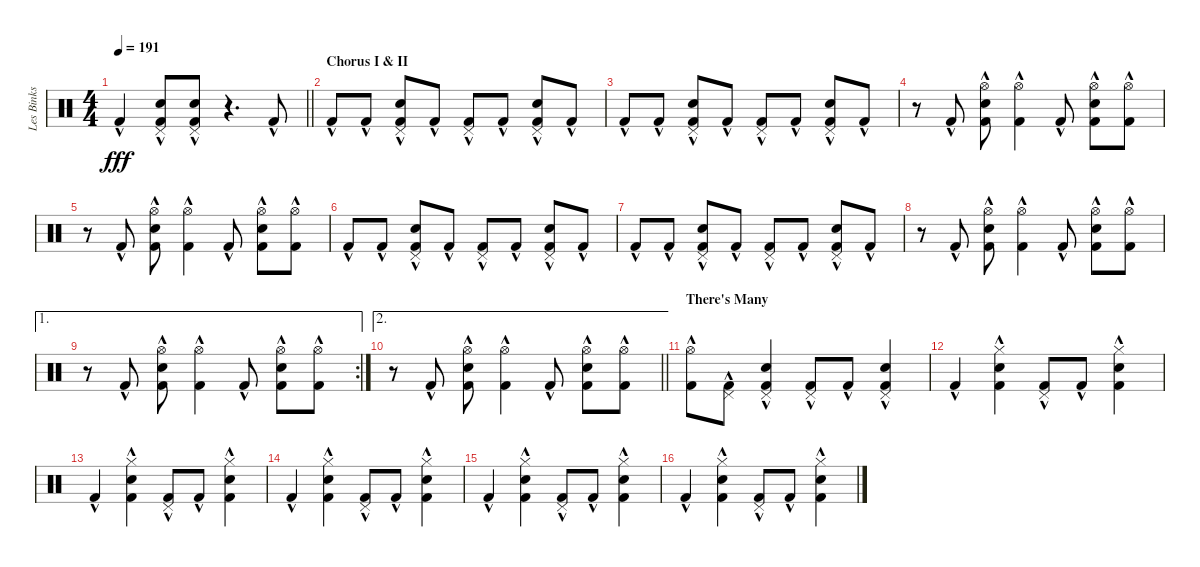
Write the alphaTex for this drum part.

\track ("Les Binks" "Les Binks") {instrument percussion}
\staff {score}
\articulation defaults
\ts (4 4)
\tempo 191
\clef neutral
\barLineRight lightlight
\ks c "Kick (hit) 2"{hac}.4{dy fff}
("Pedal Hi-Hat (hit)" "Snare (hit) 2" "Kick (hit) 2"{hac}).8 ("Pedal Hi-Hat (hit)" "Snare (hit) 2" "Kick (hit) 2"{hac}).8 r.4{d} "Kick (hit) 2"{hac}.8 |
\section ("" "Chorus I & II")
"Kick (hit) 2"{hac}.8 "Kick (hit) 2"{hac}.8 ("Pedal Hi-Hat (hit)" "Snare (hit) 2" "Kick (hit) 2"{hac}).8 "Kick (hit) 2"{hac}.8 ("Pedal Hi-Hat (hit)" "Kick (hit) 2"{hac}).8 "Kick (hit) 2"{hac}.8 ("Pedal Hi-Hat (hit)" "Snare (hit) 2" "Kick (hit) 2"{hac}).8 "Kick (hit) 2"{hac}.8 |
"Kick (hit) 2"{hac}.8 "Kick (hit) 2"{hac}.8 ("Pedal Hi-Hat (hit)" "Snare (hit) 2" "Kick (hit) 2"{hac}).8 "Kick (hit) 2"{hac}.8 ("Pedal Hi-Hat (hit)" "Kick (hit) 2"{hac}).8 "Kick (hit) 2"{hac}.8 ("Pedal Hi-Hat (hit)" "Snare (hit) 2" "Kick (hit) 2"{hac}).8 "Kick (hit) 2"{hac}.8 |
r.8 "Kick (hit) 2"{hac}.8 ("Hi-Hat (open)" "Snare (hit) 2" "Kick (hit) 2"{hac}).8 ("Hi-Hat (open)" "Kick (hit) 2"{hac}).4 "Kick (hit) 2"{hac}.8 ("Hi-Hat (open)" "Snare (hit) 2" "Kick (hit) 2"{hac}).8 ("Hi-Hat (open)" "Kick (hit) 2"{hac}).8 |
r.8 "Kick (hit) 2"{hac}.8 ("Hi-Hat (open)" "Snare (hit) 2" "Kick (hit) 2"{hac}).8 ("Hi-Hat (open)" "Kick (hit) 2"{hac}).4 "Kick (hit) 2"{hac}.8 ("Hi-Hat (open)" "Snare (hit) 2" "Kick (hit) 2"{hac}).8 ("Hi-Hat (open)" "Kick (hit) 2"{hac}).8 |
"Kick (hit) 2"{hac}.8 "Kick (hit) 2"{hac}.8 ("Pedal Hi-Hat (hit)" "Snare (hit) 2" "Kick (hit) 2"{hac}).8 "Kick (hit) 2"{hac}.8 ("Pedal Hi-Hat (hit)" "Kick (hit) 2"{hac}).8 "Kick (hit) 2"{hac}.8 ("Pedal Hi-Hat (hit)" "Snare (hit) 2" "Kick (hit) 2"{hac}).8 "Kick (hit) 2"{hac}.8 |
"Kick (hit) 2"{hac}.8 "Kick (hit) 2"{hac}.8 ("Pedal Hi-Hat (hit)" "Snare (hit) 2" "Kick (hit) 2"{hac}).8 "Kick (hit) 2"{hac}.8 ("Pedal Hi-Hat (hit)" "Kick (hit) 2"{hac}).8 "Kick (hit) 2"{hac}.8 ("Pedal Hi-Hat (hit)" "Snare (hit) 2" "Kick (hit) 2"{hac}).8 "Kick (hit) 2"{hac}.8 |
r.8 "Kick (hit) 2"{hac}.8 ("Hi-Hat (open)" "Snare (hit) 2" "Kick (hit) 2"{hac}).8 ("Hi-Hat (open)" "Kick (hit) 2"{hac}).4 "Kick (hit) 2"{hac}.8 ("Hi-Hat (open)" "Snare (hit) 2" "Kick (hit) 2"{hac}).8 ("Hi-Hat (open)" "Kick (hit) 2"{hac}).8 |
\ae 1
\rc 2
r.8 "Kick (hit) 2"{hac}.8 ("Hi-Hat (open)" "Snare (hit) 2" "Kick (hit) 2"{hac}).8 ("Hi-Hat (open)" "Kick (hit) 2"{hac}).4 "Kick (hit) 2"{hac}.8 ("Hi-Hat (open)" "Snare (hit) 2" "Kick (hit) 2"{hac}).8 ("Hi-Hat (open)" "Kick (hit) 2"{hac}).8 |
\ae 2
\barLineRight lightlight
r.8 "Kick (hit) 2"{hac}.8 ("Hi-Hat (open)" "Snare (hit) 2" "Kick (hit) 2"{hac}).8 ("Hi-Hat (open)" "Kick (hit) 2"{hac}).4 "Kick (hit) 2"{hac}.8 ("Hi-Hat (open)" "Snare (hit) 2" "Kick (hit) 2"{hac}).8 ("Hi-Hat (open)" "Kick (hit) 2"{hac}).8 |
\section ("" "There's Many")
("Hi-Hat (open)" "Kick (hit) 2"{hac}).8 ("Pedal Hi-Hat (hit)" "Kick (hit) 2"{hac}).8 ("Pedal Hi-Hat (hit)" "Snare (hit) 2" "Kick (hit) 2"{hac}).4 ("Pedal Hi-Hat (hit)" "Kick (hit) 2"{hac}).8 "Kick (hit) 2"{hac}.8 ("Pedal Hi-Hat (hit)" "Snare (hit) 2" "Kick (hit) 2"{hac}).4 |
"Kick (hit) 2"{hac}.4 ("Hi-Hat (closed)" "Snare (hit) 2" "Kick (hit) 2"{hac}).4 ("Pedal Hi-Hat (hit)" "Kick (hit) 2"{hac}).8 "Kick (hit) 2"{hac}.8 ("Hi-Hat (closed)" "Snare (hit) 2" "Kick (hit) 2"{hac}).4 |
"Kick (hit) 2"{hac}.4 ("Hi-Hat (closed)" "Snare (hit) 2" "Kick (hit) 2"{hac}).4 ("Pedal Hi-Hat (hit)" "Kick (hit) 2"{hac}).8 "Kick (hit) 2"{hac}.8 ("Hi-Hat (closed)" "Snare (hit) 2" "Kick (hit) 2"{hac}).4 |
"Kick (hit) 2"{hac}.4 ("Hi-Hat (closed)" "Snare (hit) 2" "Kick (hit) 2"{hac}).4 ("Pedal Hi-Hat (hit)" "Kick (hit) 2"{hac}).8 "Kick (hit) 2"{hac}.8 ("Hi-Hat (closed)" "Snare (hit) 2" "Kick (hit) 2"{hac}).4 |
"Kick (hit) 2"{hac}.4 ("Hi-Hat (closed)" "Snare (hit) 2" "Kick (hit) 2"{hac}).4 ("Pedal Hi-Hat (hit)" "Kick (hit) 2"{hac}).8 "Kick (hit) 2"{hac}.8 ("Hi-Hat (closed)" "Snare (hit) 2" "Kick (hit) 2"{hac}).4 |
"Kick (hit) 2"{hac}.4 ("Hi-Hat (closed)" "Snare (hit) 2" "Kick (hit) 2"{hac}).4 ("Pedal Hi-Hat (hit)" "Kick (hit) 2"{hac}).8 "Kick (hit) 2"{hac}.8 ("Hi-Hat (closed)" "Snare (hit) 2" "Kick (hit) 2"{hac}).4
